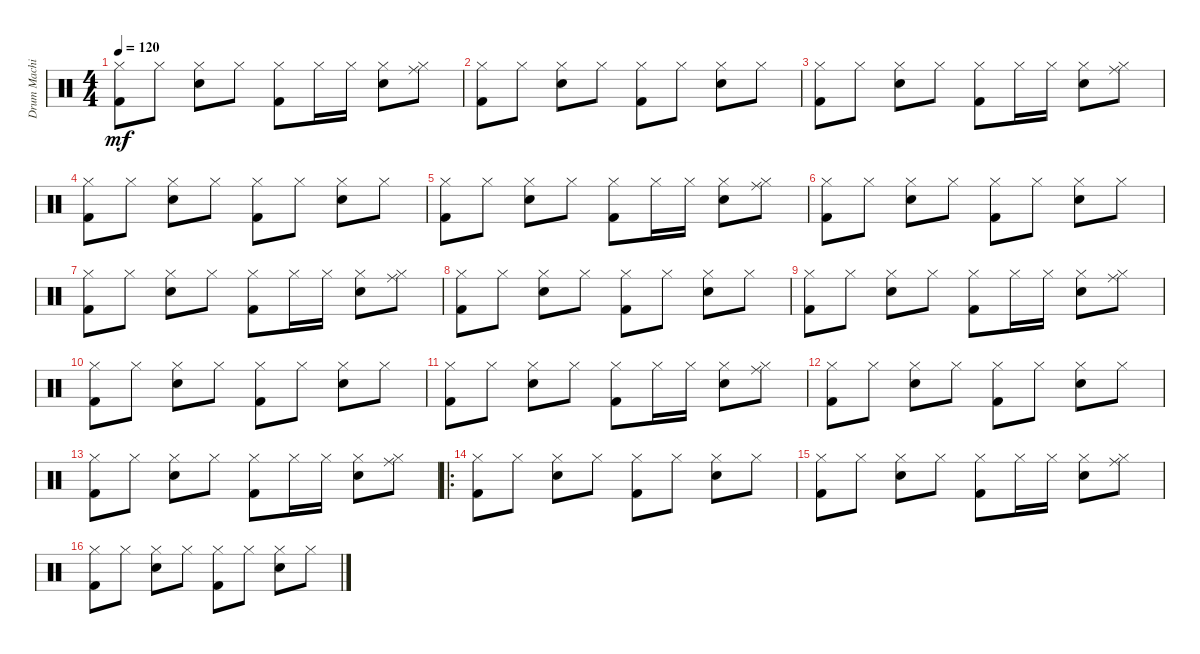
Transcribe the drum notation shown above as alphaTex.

\track ("Drum Machine" "Drum Machi") {instrument percussion}
\staff {score}
\articulation defaults
\ts (4 4)
\tempo 120
\clef neutral
\ks c
("Hi-Hat (closed)" "Kick (hit) 2").8{dy mf} "Hi-Hat (closed)".8 ("Hi-Hat (closed)" "Snare (hit) 2").8 "Hi-Hat (closed)".8 ("Hi-Hat (closed)" "Kick (hit) 2").8 "Hi-Hat (closed)".16 "Hi-Hat (closed)".16 ("Hi-Hat (closed)" "Snare (hit) 2").8 ("Hi-Hat (closed)" "Ride (middle)").8 |
("Hi-Hat (closed)" "Kick (hit) 2").8 "Hi-Hat (closed)".8 ("Hi-Hat (closed)" "Snare (hit) 2").8 "Hi-Hat (closed)".8 ("Hi-Hat (closed)" "Kick (hit) 2").8 "Hi-Hat (closed)".8 ("Hi-Hat (closed)" "Snare (hit) 2").8 "Hi-Hat (closed)".8 |
("Hi-Hat (closed)" "Kick (hit) 2").8 "Hi-Hat (closed)".8 ("Hi-Hat (closed)" "Snare (hit) 2").8 "Hi-Hat (closed)".8 ("Hi-Hat (closed)" "Kick (hit) 2").8 "Hi-Hat (closed)".16 "Hi-Hat (closed)".16 ("Hi-Hat (closed)" "Snare (hit) 2").8 ("Hi-Hat (closed)" "Ride (middle)").8 |
("Hi-Hat (closed)" "Kick (hit) 2").8 "Hi-Hat (closed)".8 ("Hi-Hat (closed)" "Snare (hit) 2").8 "Hi-Hat (closed)".8 ("Hi-Hat (closed)" "Kick (hit) 2").8 "Hi-Hat (closed)".8 ("Hi-Hat (closed)" "Snare (hit) 2").8 "Hi-Hat (closed)".8 |
("Hi-Hat (closed)" "Kick (hit) 2").8 "Hi-Hat (closed)".8 ("Hi-Hat (closed)" "Snare (hit) 2").8 "Hi-Hat (closed)".8 ("Hi-Hat (closed)" "Kick (hit) 2").8 "Hi-Hat (closed)".16 "Hi-Hat (closed)".16 ("Hi-Hat (closed)" "Snare (hit) 2").8 ("Hi-Hat (closed)" "Ride (middle)").8 |
("Hi-Hat (closed)" "Kick (hit) 2").8 "Hi-Hat (closed)".8 ("Hi-Hat (closed)" "Snare (hit) 2").8 "Hi-Hat (closed)".8 ("Hi-Hat (closed)" "Kick (hit) 2").8 "Hi-Hat (closed)".8 ("Hi-Hat (closed)" "Snare (hit) 2").8 "Hi-Hat (closed)".8 |
("Hi-Hat (closed)" "Kick (hit) 2").8 "Hi-Hat (closed)".8 ("Hi-Hat (closed)" "Snare (hit) 2").8 "Hi-Hat (closed)".8 ("Hi-Hat (closed)" "Kick (hit) 2").8 "Hi-Hat (closed)".16 "Hi-Hat (closed)".16 ("Hi-Hat (closed)" "Snare (hit) 2").8 ("Hi-Hat (closed)" "Ride (middle)").8 |
("Hi-Hat (closed)" "Kick (hit) 2").8 "Hi-Hat (closed)".8 ("Hi-Hat (closed)" "Snare (hit) 2").8 "Hi-Hat (closed)".8 ("Hi-Hat (closed)" "Kick (hit) 2").8 "Hi-Hat (closed)".8 ("Hi-Hat (closed)" "Snare (hit) 2").8 "Hi-Hat (closed)".8 |
("Hi-Hat (closed)" "Kick (hit) 2").8 "Hi-Hat (closed)".8 ("Hi-Hat (closed)" "Snare (hit) 2").8 "Hi-Hat (closed)".8 ("Hi-Hat (closed)" "Kick (hit) 2").8 "Hi-Hat (closed)".16 "Hi-Hat (closed)".16 ("Hi-Hat (closed)" "Snare (hit) 2").8 ("Hi-Hat (closed)" "Ride (middle)").8 |
("Hi-Hat (closed)" "Kick (hit) 2").8 "Hi-Hat (closed)".8 ("Hi-Hat (closed)" "Snare (hit) 2").8 "Hi-Hat (closed)".8 ("Hi-Hat (closed)" "Kick (hit) 2").8 "Hi-Hat (closed)".8 ("Hi-Hat (closed)" "Snare (hit) 2").8 "Hi-Hat (closed)".8 |
("Hi-Hat (closed)" "Kick (hit) 2").8 "Hi-Hat (closed)".8 ("Hi-Hat (closed)" "Snare (hit) 2").8 "Hi-Hat (closed)".8 ("Hi-Hat (closed)" "Kick (hit) 2").8 "Hi-Hat (closed)".16 "Hi-Hat (closed)".16 ("Hi-Hat (closed)" "Snare (hit) 2").8 ("Hi-Hat (closed)" "Ride (middle)").8 |
("Hi-Hat (closed)" "Kick (hit) 2").8 "Hi-Hat (closed)".8 ("Hi-Hat (closed)" "Snare (hit) 2").8 "Hi-Hat (closed)".8 ("Hi-Hat (closed)" "Kick (hit) 2").8 "Hi-Hat (closed)".8 ("Hi-Hat (closed)" "Snare (hit) 2").8 "Hi-Hat (closed)".8 |
("Hi-Hat (closed)" "Kick (hit) 2").8 "Hi-Hat (closed)".8 ("Hi-Hat (closed)" "Snare (hit) 2").8 "Hi-Hat (closed)".8 ("Hi-Hat (closed)" "Kick (hit) 2").8 "Hi-Hat (closed)".16 "Hi-Hat (closed)".16 ("Hi-Hat (closed)" "Snare (hit) 2").8 ("Hi-Hat (closed)" "Ride (middle)").8 |
\ro
("Hi-Hat (closed)" "Kick (hit) 2").8 "Hi-Hat (closed)".8 ("Hi-Hat (closed)" "Snare (hit) 2").8 "Hi-Hat (closed)".8 ("Hi-Hat (closed)" "Kick (hit) 2").8 "Hi-Hat (closed)".8 ("Hi-Hat (closed)" "Snare (hit) 2").8 "Hi-Hat (closed)".8 |
("Hi-Hat (closed)" "Kick (hit) 2").8 "Hi-Hat (closed)".8 ("Hi-Hat (closed)" "Snare (hit) 2").8 "Hi-Hat (closed)".8 ("Hi-Hat (closed)" "Kick (hit) 2").8 "Hi-Hat (closed)".16 "Hi-Hat (closed)".16 ("Hi-Hat (closed)" "Snare (hit) 2").8 ("Hi-Hat (closed)" "Ride (middle)").8 |
("Hi-Hat (closed)" "Kick (hit) 2").8 "Hi-Hat (closed)".8 ("Hi-Hat (closed)" "Snare (hit) 2").8 "Hi-Hat (closed)".8 ("Hi-Hat (closed)" "Kick (hit) 2").8 "Hi-Hat (closed)".8 ("Hi-Hat (closed)" "Snare (hit) 2").8 "Hi-Hat (closed)".8
